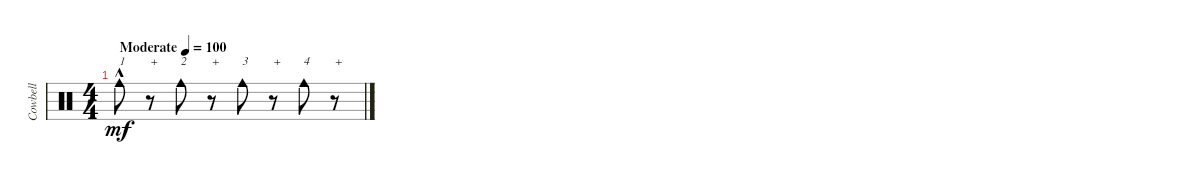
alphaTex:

\track ("Cowbell" "Cowbell") {instrument percussion}
\staff {score}
\articulation defaults
\ts (4 4)
\tempo (100 "Moderate")
\clef neutral
\ks c "Cowbell medium (hit)"{hac}.8{txt "1" dy mf}
r.8{txt "+"} "Cowbell medium (hit)".8{txt "2"} r.8{txt "+"} "Cowbell medium (hit)".8{txt "3"} r.8{txt "+"} "Cowbell medium (hit)".8{txt "4"} r.8{txt "+"}
